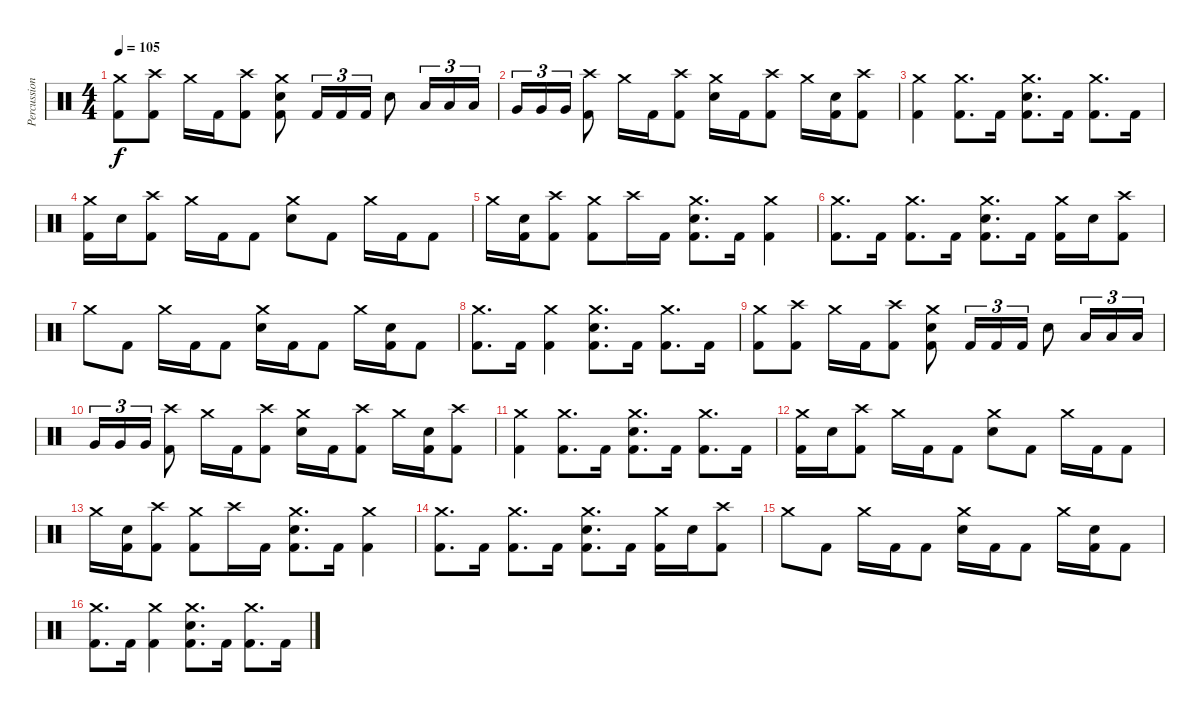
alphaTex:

\track ("Percussion" "Percussion") {instrument percussion}
\staff {score}
\articulation defaults
\ts (4 4)
\tempo 105
\clef neutral
\ks c
("Crash medium (hit)" "Kick (hit) 2").8{dy f} ("Crash high (hit)" "Kick (hit) 2").8 "Crash medium (hit)".16 "Kick (hit) 2".16 ("Crash high (hit)" "Kick (hit) 2").8 ("Crash medium (hit)" "Electric Snare (hit)" "Kick (hit) 2").8 "Kick (hit) 2".16{tu (3 2)} "Kick (hit) 2".16{tu (3 2)} "Kick (hit) 2".16{tu (3 2)} "Electric Snare (hit)".8 "Low Tom (hit)".16{tu (3 2)} "Low Tom (hit)".16{tu (3 2)} "Low Tom (hit)".16{tu (3 2)} |
"Very Low Tom (hit)".16{tu (3 2)} "Very Low Tom (hit)".16{tu (3 2)} "Very Low Tom (hit)".16{tu (3 2)} ("Crash high (hit)" "Kick (hit) 2").8 "Crash medium (hit)".16 "Kick (hit) 2".16 ("Crash high (hit)" "Kick (hit) 2").8 ("Crash medium (hit)" "Electric Snare (hit)").16 "Kick (hit) 2".16 ("Crash high (hit)" "Kick (hit) 2").8 "Crash medium (hit)".16 ("Electric Snare (hit)" "Kick (hit) 2").16 ("Crash high (hit)" "Kick (hit) 2").8 |
("Crash medium (hit)" "Kick (hit) 2").4 ("Crash medium (hit)" "Kick (hit) 2").8{d} "Kick (hit) 2".16 ("Crash medium (hit)" "Electric Snare (hit)" "Kick (hit) 2").8{d} "Kick (hit) 2".16 ("Crash medium (hit)" "Kick (hit) 2").8{d} "Kick (hit) 2".16 |
("Crash medium (hit)" "Kick (hit) 2").16 "Electric Snare (hit)".16 ("Crash high (hit)" "Kick (hit) 2").8 "Crash medium (hit)".16 "Kick (hit) 2".16 "Kick (hit) 2".8 ("Crash medium (hit)" "Electric Snare (hit)").8 "Kick (hit) 2".8 "Crash medium (hit)".16 "Kick (hit) 2".16 "Kick (hit) 2".8 |
"Crash medium (hit)".16 ("Electric Snare (hit)" "Kick (hit) 2").16 ("Crash high (hit)" "Kick (hit) 2").8 ("Crash medium (hit)" "Kick (hit) 2").8 "Crash high (hit)".16 "Kick (hit) 2".16 ("Crash medium (hit)" "Electric Snare (hit)" "Kick (hit) 2").8{d} "Kick (hit) 2".16 ("Crash medium (hit)" "Kick (hit) 2").4 |
("Crash medium (hit)" "Kick (hit) 2").8{d} "Kick (hit) 2".16 ("Crash medium (hit)" "Kick (hit) 2").8{d} "Kick (hit) 2".16 ("Crash medium (hit)" "Electric Snare (hit)" "Kick (hit) 2").8{d} "Kick (hit) 2".16 ("Crash medium (hit)" "Kick (hit) 2").16 "Electric Snare (hit)".16 ("Crash high (hit)" "Kick (hit) 2").8 |
"Crash medium (hit)".8 "Kick (hit) 2".8 "Crash medium (hit)".16 "Kick (hit) 2".16 "Kick (hit) 2".8 ("Crash medium (hit)" "Electric Snare (hit)").16 "Kick (hit) 2".16 "Kick (hit) 2".8 "Crash medium (hit)".16 ("Electric Snare (hit)" "Kick (hit) 2").16 "Kick (hit) 2".8 |
("Crash medium (hit)" "Kick (hit) 2").8{d} "Kick (hit) 2".16 ("Crash medium (hit)" "Kick (hit) 2").4 ("Crash medium (hit)" "Electric Snare (hit)" "Kick (hit) 2").8{d} "Kick (hit) 2".16 ("Crash medium (hit)" "Kick (hit) 2").8{d} "Kick (hit) 2".16 |
("Crash medium (hit)" "Kick (hit) 2").8 ("Crash high (hit)" "Kick (hit) 2").8 "Crash medium (hit)".16 "Kick (hit) 2".16 ("Crash high (hit)" "Kick (hit) 2").8 ("Crash medium (hit)" "Electric Snare (hit)" "Kick (hit) 2").8 "Kick (hit) 2".16{tu (3 2)} "Kick (hit) 2".16{tu (3 2)} "Kick (hit) 2".16{tu (3 2)} "Electric Snare (hit)".8 "Low Tom (hit)".16{tu (3 2)} "Low Tom (hit)".16{tu (3 2)} "Low Tom (hit)".16{tu (3 2)} |
"Very Low Tom (hit)".16{tu (3 2)} "Very Low Tom (hit)".16{tu (3 2)} "Very Low Tom (hit)".16{tu (3 2)} ("Crash high (hit)" "Kick (hit) 2").8 "Crash medium (hit)".16 "Kick (hit) 2".16 ("Crash high (hit)" "Kick (hit) 2").8 ("Crash medium (hit)" "Electric Snare (hit)").16 "Kick (hit) 2".16 ("Crash high (hit)" "Kick (hit) 2").8 "Crash medium (hit)".16 ("Electric Snare (hit)" "Kick (hit) 2").16 ("Crash high (hit)" "Kick (hit) 2").8 |
("Crash medium (hit)" "Kick (hit) 2").4 ("Crash medium (hit)" "Kick (hit) 2").8{d} "Kick (hit) 2".16 ("Crash medium (hit)" "Electric Snare (hit)" "Kick (hit) 2").8{d} "Kick (hit) 2".16 ("Crash medium (hit)" "Kick (hit) 2").8{d} "Kick (hit) 2".16 |
("Crash medium (hit)" "Kick (hit) 2").16 "Electric Snare (hit)".16 ("Crash high (hit)" "Kick (hit) 2").8 "Crash medium (hit)".16 "Kick (hit) 2".16 "Kick (hit) 2".8 ("Crash medium (hit)" "Electric Snare (hit)").8 "Kick (hit) 2".8 "Crash medium (hit)".16 "Kick (hit) 2".16 "Kick (hit) 2".8 |
"Crash medium (hit)".16 ("Electric Snare (hit)" "Kick (hit) 2").16 ("Crash high (hit)" "Kick (hit) 2").8 ("Crash medium (hit)" "Kick (hit) 2").8 "Crash high (hit)".16 "Kick (hit) 2".16 ("Crash medium (hit)" "Electric Snare (hit)" "Kick (hit) 2").8{d} "Kick (hit) 2".16 ("Crash medium (hit)" "Kick (hit) 2").4 |
("Crash medium (hit)" "Kick (hit) 2").8{d} "Kick (hit) 2".16 ("Crash medium (hit)" "Kick (hit) 2").8{d} "Kick (hit) 2".16 ("Crash medium (hit)" "Electric Snare (hit)" "Kick (hit) 2").8{d} "Kick (hit) 2".16 ("Crash medium (hit)" "Kick (hit) 2").16 "Electric Snare (hit)".16 ("Crash high (hit)" "Kick (hit) 2").8 |
"Crash medium (hit)".8 "Kick (hit) 2".8 "Crash medium (hit)".16 "Kick (hit) 2".16 "Kick (hit) 2".8 ("Crash medium (hit)" "Electric Snare (hit)").16 "Kick (hit) 2".16 "Kick (hit) 2".8 "Crash medium (hit)".16 ("Electric Snare (hit)" "Kick (hit) 2").16 "Kick (hit) 2".8 |
("Crash medium (hit)" "Kick (hit) 2").8{d} "Kick (hit) 2".16 ("Crash medium (hit)" "Kick (hit) 2").4 ("Crash medium (hit)" "Electric Snare (hit)" "Kick (hit) 2").8{d} "Kick (hit) 2".16 ("Crash medium (hit)" "Kick (hit) 2").8{d} "Kick (hit) 2".16
